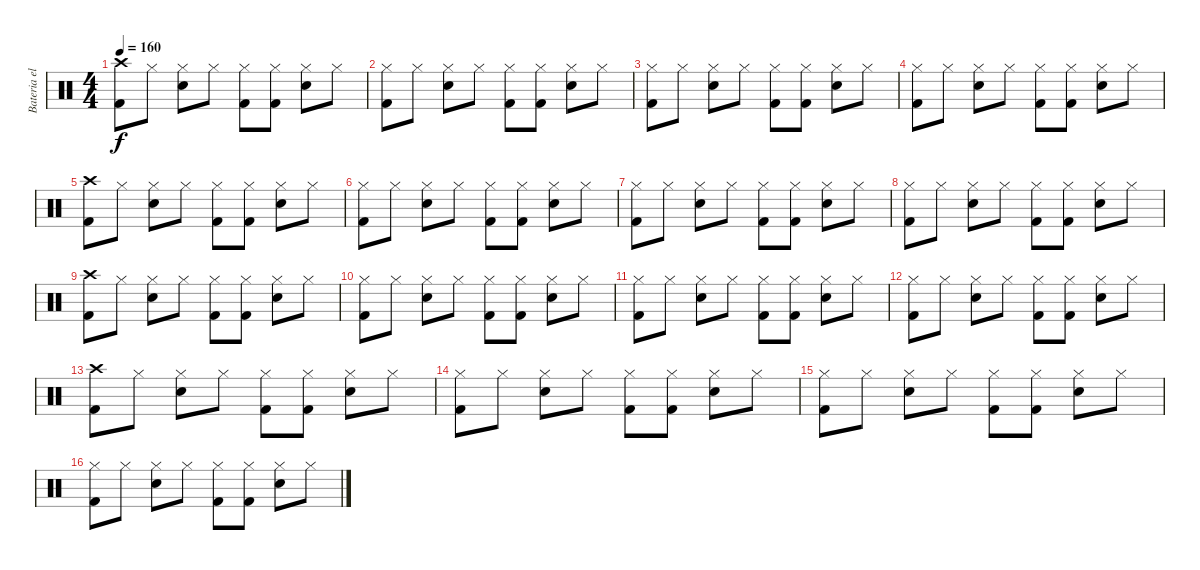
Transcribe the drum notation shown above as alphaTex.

\track ("Bateria electrica" "Bateria el") {instrument percussion}
\staff {score}
\articulation defaults
\ts (4 4)
\tempo 160
\clef neutral
\ks c
("Crash high (hit)" "Kick (hit) 2").8{dy f} "Hi-Hat (closed)".8 ("Hi-Hat (closed)" "Snare (hit) 2").8 "Hi-Hat (closed)".8 ("Hi-Hat (closed)" "Kick (hit) 2").8 ("Hi-Hat (closed)" "Kick (hit) 2").8 ("Hi-Hat (closed)" "Snare (hit) 2").8 "Hi-Hat (closed)".8 |
("Hi-Hat (closed)" "Kick (hit) 2").8 "Hi-Hat (closed)".8 ("Hi-Hat (closed)" "Snare (hit) 2").8 "Hi-Hat (closed)".8 ("Hi-Hat (closed)" "Kick (hit) 2").8 ("Hi-Hat (closed)" "Kick (hit) 2").8 ("Hi-Hat (closed)" "Snare (hit) 2").8 "Hi-Hat (closed)".8 |
("Hi-Hat (closed)" "Kick (hit) 2").8 "Hi-Hat (closed)".8 ("Hi-Hat (closed)" "Snare (hit) 2").8 "Hi-Hat (closed)".8 ("Hi-Hat (closed)" "Kick (hit) 2").8 ("Hi-Hat (closed)" "Kick (hit) 2").8 ("Hi-Hat (closed)" "Snare (hit) 2").8 "Hi-Hat (closed)".8 |
("Hi-Hat (closed)" "Kick (hit) 2").8 "Hi-Hat (closed)".8 ("Hi-Hat (closed)" "Snare (hit) 2").8 "Hi-Hat (closed)".8 ("Hi-Hat (closed)" "Kick (hit) 2").8 ("Hi-Hat (closed)" "Kick (hit) 2").8 ("Hi-Hat (closed)" "Snare (hit) 2").8 "Hi-Hat (closed)".8 |
("Crash high (hit)" "Kick (hit) 2").8 "Hi-Hat (closed)".8 ("Hi-Hat (closed)" "Snare (hit) 2").8 "Hi-Hat (closed)".8 ("Hi-Hat (closed)" "Kick (hit) 2").8 ("Hi-Hat (closed)" "Kick (hit) 2").8 ("Hi-Hat (closed)" "Snare (hit) 2").8 "Hi-Hat (closed)".8 |
("Hi-Hat (closed)" "Kick (hit) 2").8 "Hi-Hat (closed)".8 ("Hi-Hat (closed)" "Snare (hit) 2").8 "Hi-Hat (closed)".8 ("Hi-Hat (closed)" "Kick (hit) 2").8 ("Hi-Hat (closed)" "Kick (hit) 2").8 ("Hi-Hat (closed)" "Snare (hit) 2").8 "Hi-Hat (closed)".8 |
("Hi-Hat (closed)" "Kick (hit) 2").8 "Hi-Hat (closed)".8 ("Hi-Hat (closed)" "Snare (hit) 2").8 "Hi-Hat (closed)".8 ("Hi-Hat (closed)" "Kick (hit) 2").8 ("Hi-Hat (closed)" "Kick (hit) 2").8 ("Hi-Hat (closed)" "Snare (hit) 2").8 "Hi-Hat (closed)".8 |
("Hi-Hat (closed)" "Kick (hit) 2").8 "Hi-Hat (closed)".8 ("Hi-Hat (closed)" "Snare (hit) 2").8 "Hi-Hat (closed)".8 ("Hi-Hat (closed)" "Kick (hit) 2").8 ("Hi-Hat (closed)" "Kick (hit) 2").8 ("Hi-Hat (closed)" "Snare (hit) 2").8 "Hi-Hat (closed)".8 |
("Crash high (hit)" "Kick (hit) 2").8 "Hi-Hat (closed)".8 ("Hi-Hat (closed)" "Snare (hit) 2").8 "Hi-Hat (closed)".8 ("Hi-Hat (closed)" "Kick (hit) 2").8 ("Hi-Hat (closed)" "Kick (hit) 2").8 ("Hi-Hat (closed)" "Snare (hit) 2").8 "Hi-Hat (closed)".8 |
("Hi-Hat (closed)" "Kick (hit) 2").8 "Hi-Hat (closed)".8 ("Hi-Hat (closed)" "Snare (hit) 2").8 "Hi-Hat (closed)".8 ("Hi-Hat (closed)" "Kick (hit) 2").8 ("Hi-Hat (closed)" "Kick (hit) 2").8 ("Hi-Hat (closed)" "Snare (hit) 2").8 "Hi-Hat (closed)".8 |
("Hi-Hat (closed)" "Kick (hit) 2").8 "Hi-Hat (closed)".8 ("Hi-Hat (closed)" "Snare (hit) 2").8 "Hi-Hat (closed)".8 ("Hi-Hat (closed)" "Kick (hit) 2").8 ("Hi-Hat (closed)" "Kick (hit) 2").8 ("Hi-Hat (closed)" "Snare (hit) 2").8 "Hi-Hat (closed)".8 |
("Hi-Hat (closed)" "Kick (hit) 2").8 "Hi-Hat (closed)".8 ("Hi-Hat (closed)" "Snare (hit) 2").8 "Hi-Hat (closed)".8 ("Hi-Hat (closed)" "Kick (hit) 2").8 ("Hi-Hat (closed)" "Kick (hit) 2").8 ("Hi-Hat (closed)" "Snare (hit) 2").8 "Hi-Hat (closed)".8 |
("Crash high (hit)" "Kick (hit) 2").8 "Hi-Hat (closed)".8 ("Hi-Hat (closed)" "Snare (hit) 2").8 "Hi-Hat (closed)".8 ("Hi-Hat (closed)" "Kick (hit) 2").8 ("Hi-Hat (closed)" "Kick (hit) 2").8 ("Hi-Hat (closed)" "Snare (hit) 2").8 "Hi-Hat (closed)".8 |
("Hi-Hat (closed)" "Kick (hit) 2").8 "Hi-Hat (closed)".8 ("Hi-Hat (closed)" "Snare (hit) 2").8 "Hi-Hat (closed)".8 ("Hi-Hat (closed)" "Kick (hit) 2").8 ("Hi-Hat (closed)" "Kick (hit) 2").8 ("Hi-Hat (closed)" "Snare (hit) 2").8 "Hi-Hat (closed)".8 |
("Hi-Hat (closed)" "Kick (hit) 2").8 "Hi-Hat (closed)".8 ("Hi-Hat (closed)" "Snare (hit) 2").8 "Hi-Hat (closed)".8 ("Hi-Hat (closed)" "Kick (hit) 2").8 ("Hi-Hat (closed)" "Kick (hit) 2").8 ("Hi-Hat (closed)" "Snare (hit) 2").8 "Hi-Hat (closed)".8 |
("Hi-Hat (closed)" "Kick (hit) 2").8 "Hi-Hat (closed)".8 ("Hi-Hat (closed)" "Snare (hit) 2").8 "Hi-Hat (closed)".8 ("Hi-Hat (closed)" "Kick (hit) 2").8 ("Hi-Hat (closed)" "Kick (hit) 2").8 ("Hi-Hat (closed)" "Snare (hit) 2").8 "Hi-Hat (closed)".8
